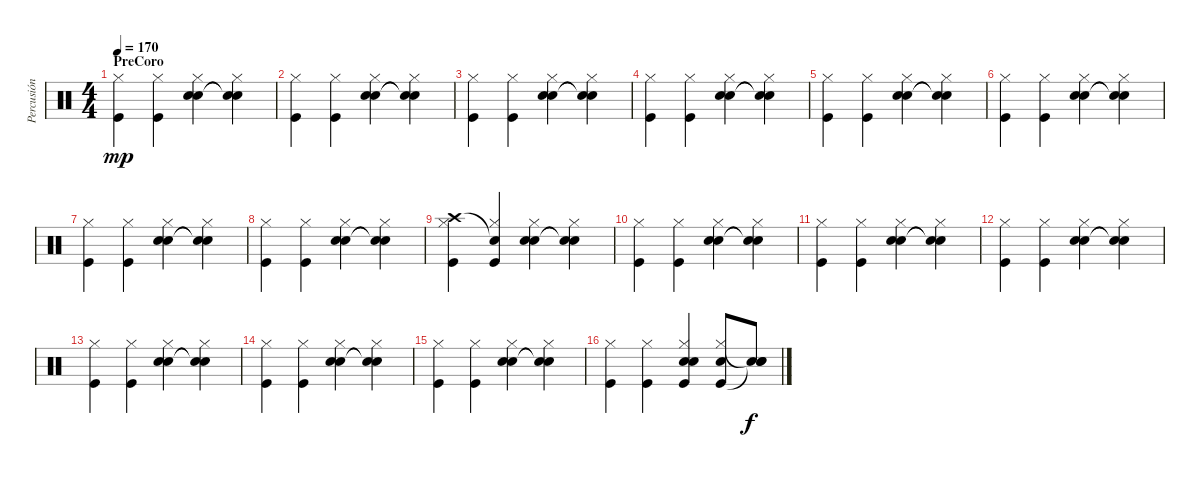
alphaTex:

\track ("Percusión" "Percusión") {instrument percussion}
\staff {score}
\articulation defaults
\ts (4 4)
\section ("" "PreCoro")
\tempo 170
\clef neutral
\ks c
("Kick (hit)" "Hi-Hat (closed)").4{dy mp} ("Kick (hit)" "Hi-Hat (closed)").4 ("Electric Snare (hit)" "Snare (hit) 2" "Hi-Hat (closed)").4 ("Snare (hit)"{t} "Snare (hit)"{t} "Hi-Hat (closed)").4 |
("Kick (hit)" "Hi-Hat (closed)").4 ("Kick (hit)" "Hi-Hat (closed)").4 ("Electric Snare (hit)" "Snare (hit) 2" "Hi-Hat (closed)").4 ("Snare (hit)"{t} "Snare (hit)"{t} "Hi-Hat (closed)").4 |
("Kick (hit)" "Hi-Hat (closed)").4 ("Kick (hit)" "Hi-Hat (closed)").4 ("Electric Snare (hit)" "Snare (hit) 2" "Hi-Hat (closed)").4 ("Snare (hit)"{t} "Snare (hit)"{t} "Hi-Hat (closed)").4 |
("Kick (hit)" "Hi-Hat (closed)").4 ("Kick (hit)" "Hi-Hat (closed)").4 ("Electric Snare (hit)" "Snare (hit) 2" "Hi-Hat (closed)").4 ("Snare (hit)"{t} "Snare (hit)"{t} "Hi-Hat (closed)").4 |
("Kick (hit)" "Hi-Hat (closed)").4 ("Kick (hit)" "Hi-Hat (closed)").4 ("Electric Snare (hit)" "Snare (hit) 2" "Hi-Hat (closed)").4 ("Snare (hit)"{t} "Snare (hit)"{t} "Hi-Hat (closed)").4 |
("Kick (hit)" "Hi-Hat (closed)").4 ("Kick (hit)" "Hi-Hat (closed)").4 ("Electric Snare (hit)" "Snare (hit) 2" "Hi-Hat (closed)").4 ("Snare (hit)"{t} "Snare (hit)"{t} "Hi-Hat (closed)").4 |
("Kick (hit)" "Hi-Hat (closed)").4 ("Kick (hit)" "Hi-Hat (closed)").4 ("Electric Snare (hit)" "Snare (hit) 2" "Hi-Hat (closed)").4 ("Snare (hit)"{t} "Snare (hit)"{t} "Hi-Hat (closed)").4 |
("Kick (hit)" "Hi-Hat (closed)").4 ("Kick (hit)" "Hi-Hat (closed)").4 ("Electric Snare (hit)" "Snare (hit) 2" "Hi-Hat (closed)").4 ("Snare (hit)"{t} "Snare (hit)"{t} "Hi-Hat (closed)").4 |
("Kick (hit)" "Crash high (hit)" "Hi-Hat (closed)").4 ("Kick (hit)" "Snare (hit)"{t} "Hi-Hat (closed)").4 ("Electric Snare (hit)" "Snare (hit) 2" "Hi-Hat (closed)").4 ("Snare (hit)"{t} "Snare (hit)"{t} "Hi-Hat (closed)").4 |
("Kick (hit)" "Hi-Hat (closed)").4 ("Kick (hit)" "Hi-Hat (closed)").4 ("Electric Snare (hit)" "Snare (hit) 2" "Hi-Hat (closed)").4 ("Snare (hit)"{t} "Snare (hit)"{t} "Hi-Hat (closed)").4 |
("Kick (hit)" "Hi-Hat (closed)").4 ("Kick (hit)" "Hi-Hat (closed)").4 ("Electric Snare (hit)" "Snare (hit) 2" "Hi-Hat (closed)").4 ("Snare (hit)"{t} "Snare (hit)"{t} "Hi-Hat (closed)").4 |
("Kick (hit)" "Hi-Hat (closed)").4 ("Kick (hit)" "Hi-Hat (closed)").4 ("Electric Snare (hit)" "Snare (hit) 2" "Hi-Hat (closed)").4 ("Snare (hit)"{t} "Snare (hit)"{t} "Hi-Hat (closed)").4 |
("Kick (hit)" "Hi-Hat (closed)").4 ("Kick (hit)" "Hi-Hat (closed)").4 ("Electric Snare (hit)" "Snare (hit) 2" "Hi-Hat (closed)").4 ("Snare (hit)"{t} "Snare (hit)"{t} "Hi-Hat (closed)").4 |
("Kick (hit)" "Hi-Hat (closed)").4 ("Kick (hit)" "Hi-Hat (closed)").4 ("Electric Snare (hit)" "Snare (hit) 2" "Hi-Hat (closed)").4 ("Snare (hit)"{t} "Snare (hit)"{t} "Hi-Hat (closed)").4 |
("Kick (hit)" "Hi-Hat (closed)").4 ("Kick (hit)" "Hi-Hat (closed)").4 ("Electric Snare (hit)" "Snare (hit) 2" "Hi-Hat (closed)").4 ("Snare (hit)"{t} "Snare (hit)"{t} "Hi-Hat (closed)").4 |
("Kick (hit)" "Hi-Hat (closed)").4 ("Kick (hit)" "Hi-Hat (closed)").4 ("Kick (hit)" "Snare (hit) 2" "Electric Snare (hit)" "Hi-Hat (closed)").4 ("Kick (hit)" "Electric Snare (hit)" "Hi-Hat (closed)").8 ("Snare (hit)"{t} "Electric Snare (hit)" "Snare (hit)"{t}).8{dy f}
